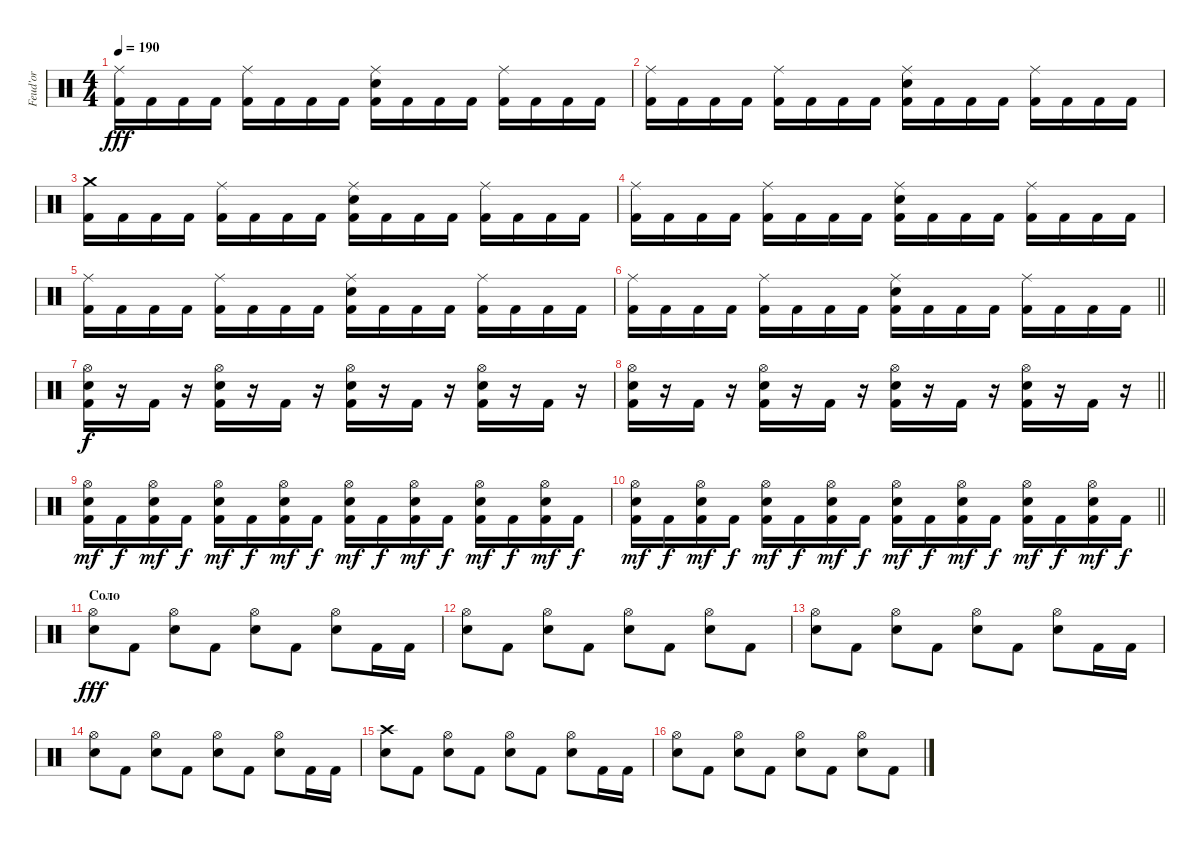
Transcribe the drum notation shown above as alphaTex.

\track ("Feud'or" "Feud'or") {instrument percussion}
\staff {score}
\articulation defaults
\ts (4 4)
\tempo 190
\clef neutral
\ks c
("Ride (middle)" "Kick (hit) 2").16{dy fff} "Kick (hit) 2".16 "Kick (hit) 2".16 "Kick (hit) 2".16 ("Ride (middle)" "Kick (hit) 2").16 "Kick (hit) 2".16 "Kick (hit) 2".16 "Kick (hit) 2".16 ("Ride (middle)" "Snare (hit) 2" "Kick (hit) 2").16 "Kick (hit) 2".16 "Kick (hit) 2".16 "Kick (hit) 2".16 ("Ride (middle)" "Kick (hit) 2").16 "Kick (hit) 2".16 "Kick (hit) 2".16 "Kick (hit) 2".16 |
("Ride (middle)" "Kick (hit) 2").16 "Kick (hit) 2".16 "Kick (hit) 2".16 "Kick (hit) 2".16 ("Ride (middle)" "Kick (hit) 2").16 "Kick (hit) 2".16 "Kick (hit) 2".16 "Kick (hit) 2".16 ("Ride (middle)" "Snare (hit) 2" "Kick (hit) 2").16 "Kick (hit) 2".16 "Kick (hit) 2".16 "Kick (hit) 2".16 ("Ride (middle)" "Kick (hit) 2").16 "Kick (hit) 2".16 "Kick (hit) 2".16 "Kick (hit) 2".16 |
("Crash medium (hit)" "Kick (hit) 2").16 "Kick (hit) 2".16 "Kick (hit) 2".16 "Kick (hit) 2".16 ("Ride (middle)" "Kick (hit) 2").16 "Kick (hit) 2".16 "Kick (hit) 2".16 "Kick (hit) 2".16 ("Ride (middle)" "Snare (hit) 2" "Kick (hit) 2").16 "Kick (hit) 2".16 "Kick (hit) 2".16 "Kick (hit) 2".16 ("Ride (middle)" "Kick (hit) 2").16 "Kick (hit) 2".16 "Kick (hit) 2".16 "Kick (hit) 2".16 |
("Ride (middle)" "Kick (hit) 2").16 "Kick (hit) 2".16 "Kick (hit) 2".16 "Kick (hit) 2".16 ("Ride (middle)" "Kick (hit) 2").16 "Kick (hit) 2".16 "Kick (hit) 2".16 "Kick (hit) 2".16 ("Ride (middle)" "Snare (hit) 2" "Kick (hit) 2").16 "Kick (hit) 2".16 "Kick (hit) 2".16 "Kick (hit) 2".16 ("Ride (middle)" "Kick (hit) 2").16 "Kick (hit) 2".16 "Kick (hit) 2".16 "Kick (hit) 2".16 |
("Ride (middle)" "Kick (hit) 2").16 "Kick (hit) 2".16 "Kick (hit) 2".16 "Kick (hit) 2".16 ("Ride (middle)" "Kick (hit) 2").16 "Kick (hit) 2".16 "Kick (hit) 2".16 "Kick (hit) 2".16 ("Ride (middle)" "Snare (hit) 2" "Kick (hit) 2").16 "Kick (hit) 2".16 "Kick (hit) 2".16 "Kick (hit) 2".16 ("Ride (middle)" "Kick (hit) 2").16 "Kick (hit) 2".16 "Kick (hit) 2".16 "Kick (hit) 2".16 |
\barLineRight lightlight
("Ride (middle)" "Kick (hit) 2").16 "Kick (hit) 2".16 "Kick (hit) 2".16 "Kick (hit) 2".16 ("Ride (middle)" "Kick (hit) 2").16 "Kick (hit) 2".16 "Kick (hit) 2".16 "Kick (hit) 2".16 ("Ride (middle)" "Snare (hit) 2" "Kick (hit) 2").16 "Kick (hit) 2".16 "Kick (hit) 2".16 "Kick (hit) 2".16 ("Ride (middle)" "Kick (hit) 2").16 "Kick (hit) 2".16 "Kick (hit) 2".16 "Kick (hit) 2".16 |
\section ("" "")
("Hi-Hat (open)" "Snare (hit) 2" "Kick (hit) 2").16{dy f} r.16 "Kick (hit) 2".16 r.16 ("Hi-Hat (open)" "Snare (hit) 2" "Kick (hit) 2").16 r.16 "Kick (hit) 2".16 r.16 ("Hi-Hat (open)" "Snare (hit) 2" "Kick (hit) 2").16 r.16 "Kick (hit) 2".16 r.16 ("Hi-Hat (open)" "Snare (hit) 2" "Kick (hit) 2").16 r.16 "Kick (hit) 2".16 r.16 |
\barLineRight lightlight
("Hi-Hat (open)" "Snare (hit) 2" "Kick (hit) 2").16 r.16 "Kick (hit) 2".16 r.16 ("Hi-Hat (open)" "Snare (hit) 2" "Kick (hit) 2").16 r.16 "Kick (hit) 2".16 r.16 ("Hi-Hat (open)" "Snare (hit) 2" "Kick (hit) 2").16 r.16 "Kick (hit) 2".16 r.16 ("Hi-Hat (open)" "Snare (hit) 2" "Kick (hit) 2").16 r.16 "Kick (hit) 2".16 r.16 |
("Hi-Hat (open)" "Snare (hit) 2" "Kick (hit) 2").16{dy mf} "Kick (hit) 2".16{dy f} ("Hi-Hat (open)" "Snare (hit) 2" "Kick (hit) 2").16{dy mf} "Kick (hit) 2".16{dy f} ("Hi-Hat (open)" "Snare (hit) 2" "Kick (hit) 2").16{dy mf} "Kick (hit) 2".16{dy f} ("Hi-Hat (open)" "Snare (hit) 2" "Kick (hit) 2").16{dy mf} "Kick (hit) 2".16{dy f} ("Hi-Hat (open)" "Snare (hit) 2" "Kick (hit) 2").16{dy mf} "Kick (hit) 2".16{dy f} ("Hi-Hat (open)" "Snare (hit) 2" "Kick (hit) 2").16{dy mf} "Kick (hit) 2".16{dy f} ("Hi-Hat (open)" "Snare (hit) 2" "Kick (hit) 2").16{dy mf} "Kick (hit) 2".16{dy f} ("Hi-Hat (open)" "Snare (hit) 2" "Kick (hit) 2").16{dy mf} "Kick (hit) 2".16{dy f} |
\barLineRight lightlight
("Hi-Hat (open)" "Snare (hit) 2" "Kick (hit) 2").16{dy mf} "Kick (hit) 2".16{dy f} ("Hi-Hat (open)" "Snare (hit) 2" "Kick (hit) 2").16{dy mf} "Kick (hit) 2".16{dy f} ("Hi-Hat (open)" "Snare (hit) 2" "Kick (hit) 2").16{dy mf} "Kick (hit) 2".16{dy f} ("Hi-Hat (open)" "Snare (hit) 2" "Kick (hit) 2").16{dy mf} "Kick (hit) 2".16{dy f} ("Hi-Hat (open)" "Snare (hit) 2" "Kick (hit) 2").16{dy mf} "Kick (hit) 2".16{dy f} ("Hi-Hat (open)" "Snare (hit) 2" "Kick (hit) 2").16{dy mf} "Kick (hit) 2".16{dy f} ("Hi-Hat (open)" "Snare (hit) 2" "Kick (hit) 2").16{dy mf} "Kick (hit) 2".16{dy f} ("Hi-Hat (open)" "Snare (hit) 2" "Kick (hit) 2").16{dy mf} "Kick (hit) 2".16{dy f} |
\section ("" "Соло")
("Hi-Hat (open)" "Snare (hit) 2").8{dy fff} "Kick (hit) 2".8 ("Hi-Hat (open)" "Snare (hit) 2").8 "Kick (hit) 2".8 ("Hi-Hat (open)" "Snare (hit) 2").8 "Kick (hit) 2".8 ("Hi-Hat (open)" "Snare (hit) 2").8 "Kick (hit) 2".16 "Kick (hit) 2".16 |
("Hi-Hat (open)" "Snare (hit) 2").8 "Kick (hit) 2".8 ("Hi-Hat (open)" "Snare (hit) 2").8 "Kick (hit) 2".8 ("Hi-Hat (open)" "Snare (hit) 2").8 "Kick (hit) 2".8 ("Hi-Hat (open)" "Snare (hit) 2").8 "Kick (hit) 2".8 |
("Hi-Hat (open)" "Snare (hit) 2").8 "Kick (hit) 2".8 ("Hi-Hat (open)" "Snare (hit) 2").8 "Kick (hit) 2".8 ("Hi-Hat (open)" "Snare (hit) 2").8 "Kick (hit) 2".8 ("Hi-Hat (open)" "Snare (hit) 2").8 "Kick (hit) 2".16 "Kick (hit) 2".16 |
("Hi-Hat (open)" "Snare (hit) 2").8 "Kick (hit) 2".8 ("Hi-Hat (open)" "Snare (hit) 2").8 "Kick (hit) 2".8 ("Hi-Hat (open)" "Snare (hit) 2").8 "Kick (hit) 2".8 ("Hi-Hat (open)" "Snare (hit) 2").8 "Kick (hit) 2".16 "Kick (hit) 2".16 |
("Crash high (hit)" "Snare (hit) 2").8 "Kick (hit) 2".8 ("Hi-Hat (open)" "Snare (hit) 2").8 "Kick (hit) 2".8 ("Hi-Hat (open)" "Snare (hit) 2").8 "Kick (hit) 2".8 ("Hi-Hat (open)" "Snare (hit) 2").8 "Kick (hit) 2".16 "Kick (hit) 2".16 |
("Hi-Hat (open)" "Snare (hit) 2").8 "Kick (hit) 2".8 ("Hi-Hat (open)" "Snare (hit) 2").8 "Kick (hit) 2".8 ("Hi-Hat (open)" "Snare (hit) 2").8 "Kick (hit) 2".8 ("Hi-Hat (open)" "Snare (hit) 2").8 "Kick (hit) 2".8
